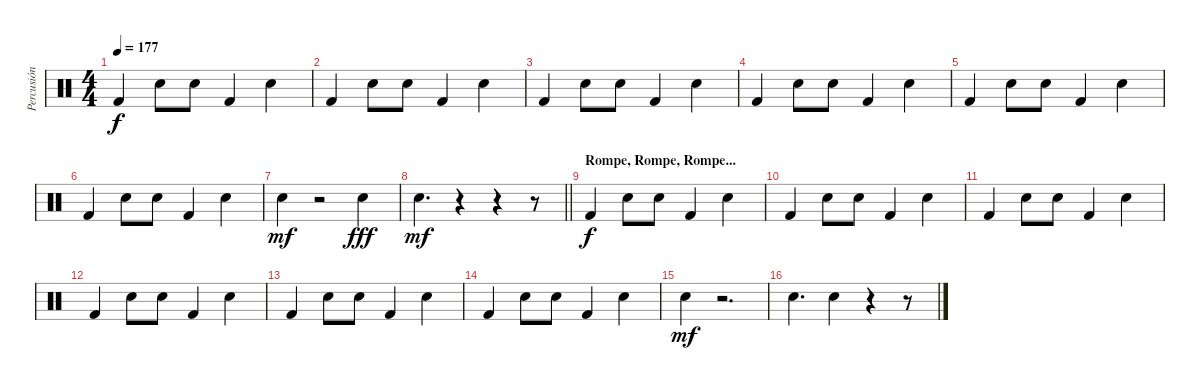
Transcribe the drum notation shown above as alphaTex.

\track ("Percusión" "Percusión") {instrument percussion}
\staff {score}
\articulation defaults
\ts (4 4)
\tempo 177
\clef neutral
\ks c "Kick (hit) 2".4{dy f balance 8} "Electric Snare (hit)".8 "Electric Snare (hit)".8 "Kick (hit) 2".4 "Electric Snare (hit)".4
|
"Kick (hit) 2".4 "Electric Snare (hit)".8 "Electric Snare (hit)".8 "Kick (hit) 2".4 "Electric Snare (hit)".4 |
"Kick (hit) 2".4 "Electric Snare (hit)".8 "Electric Snare (hit)".8 "Kick (hit) 2".4 "Electric Snare (hit)".4 |
"Kick (hit) 2".4 "Electric Snare (hit)".8 "Electric Snare (hit)".8 "Kick (hit) 2".4 "Electric Snare (hit)".4 |
"Kick (hit) 2".4 "Electric Snare (hit)".8 "Electric Snare (hit)".8 "Kick (hit) 2".4 "Electric Snare (hit)".4 |
"Kick (hit) 2".4 "Electric Snare (hit)".8 "Electric Snare (hit)".8 "Kick (hit) 2".4 "Electric Snare (hit)".4 |
"Snare (hit) 2".4{dy mf} r.2 "Snare (hit) 2".4{dy fff} |
\barLineRight lightlight "Snare (hit) 2".4{d dy mf}
r.4 r.4 r.8 |
\section ("" "Rompe, Rompe, Rompe...")
"Kick (hit) 2".4{dy f balance 8} "Electric Snare (hit)".8 "Electric Snare (hit)".8 "Kick (hit) 2".4 "Electric Snare (hit)".4 |
"Kick (hit) 2".4 "Electric Snare (hit)".8 "Electric Snare (hit)".8 "Kick (hit) 2".4 "Electric Snare (hit)".4 |
"Kick (hit) 2".4 "Electric Snare (hit)".8 "Electric Snare (hit)".8 "Kick (hit) 2".4 "Electric Snare (hit)".4 |
"Kick (hit) 2".4 "Electric Snare (hit)".8 "Electric Snare (hit)".8 "Kick (hit) 2".4 "Electric Snare (hit)".4 |
"Kick (hit) 2".4 "Electric Snare (hit)".8 "Electric Snare (hit)".8 "Kick (hit) 2".4 "Electric Snare (hit)".4 |
"Kick (hit) 2".4 "Electric Snare (hit)".8 "Electric Snare (hit)".8 "Kick (hit) 2".4 "Electric Snare (hit)".4 |
"Snare (hit) 2".4{dy mf} r.2{d} |
"Snare (hit) 2".4{d} "Snare (hit) 2".4 r.4 r.8
